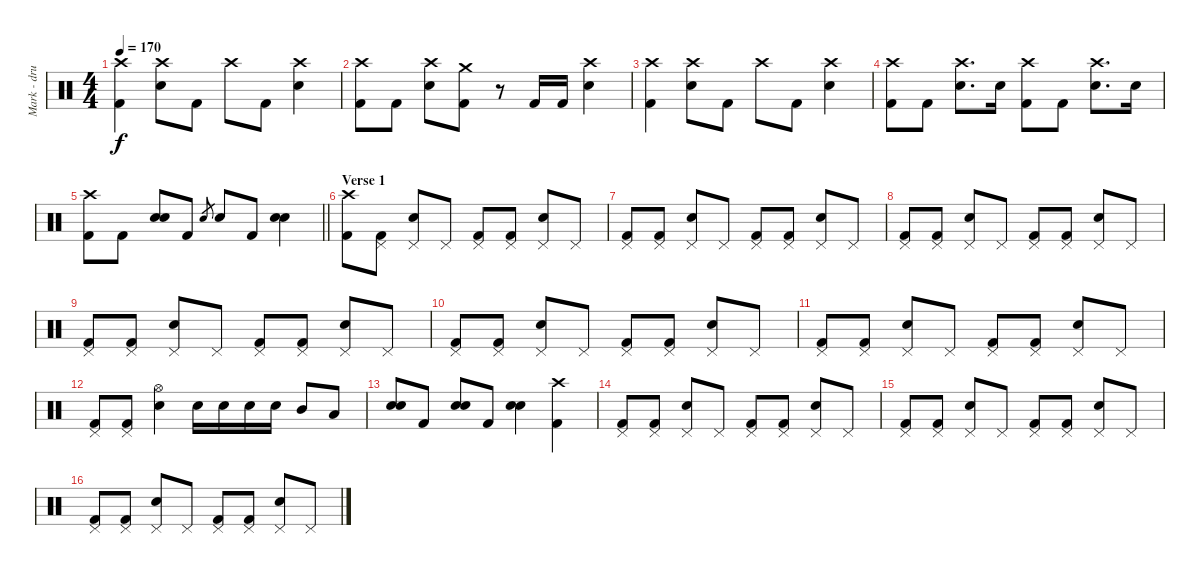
\track ("Mark - drums" "Mark - dru") {instrument percussion}
\staff {score}
\articulation defaults
\ts (4 4)
\tempo 170
\clef neutral
\ks c
("Kick (hit) 2" "Crash high (hit)").4{dy f} ("Electric Snare (hit)" "Crash high (hit)").8 "Kick (hit) 2".8 "Crash high (hit)".8 "Kick (hit) 2".8 ("Electric Snare (hit)" "Crash high (hit)").4 |
("Kick (hit) 2" "Crash high (hit)").8 "Kick (hit) 2".8 ("Electric Snare (hit)" "Crash high (hit)").8 ("Kick (hit) 2" "Crash medium (hit)").8 r.8 "Kick (hit) 2".16 "Kick (hit) 2".16 ("Electric Snare (hit)" "Crash high (hit)").4 |
("Kick (hit) 2" "Crash high (hit)").4 ("Electric Snare (hit)" "Crash high (hit)").8 "Kick (hit) 2".8 "Crash high (hit)".8 "Kick (hit) 2".8 ("Electric Snare (hit)" "Crash high (hit)").4 |
("Kick (hit) 2" "Crash high (hit)").8 "Kick (hit) 2".8 ("Electric Snare (hit)" "Crash high (hit)").8{d} "Electric Snare (hit)".16 ("Kick (hit) 2" "Crash high (hit)").8 "Kick (hit) 2".8 ("Electric Snare (hit)" "Crash high (hit)").8{d} "Electric Snare (hit)".16 |
\barLineRight lightlight
("Kick (hit) 2" "Crash high (hit)").8 "Kick (hit) 2".8 ("Electric Snare (hit)" "Electric Snare (hit)").8 "Kick (hit) 2".8 "Electric Snare (hit)".8{gr} "Electric Snare (hit)".8 "Kick (hit) 2".8 ("Electric Snare (hit)" "Electric Snare (hit)").4 |
\section ("" "Verse 1")
("Kick (hit) 2" "Crash high (hit)").8 ("Kick (hit) 2" "Pedal Hi-Hat (hit)").8 ("Electric Snare (hit)" "Pedal Hi-Hat (hit)").8 "Pedal Hi-Hat (hit)".8 ("Kick (hit) 2" "Pedal Hi-Hat (hit)").8 ("Kick (hit) 2" "Pedal Hi-Hat (hit)").8 ("Electric Snare (hit)" "Pedal Hi-Hat (hit)").8 "Pedal Hi-Hat (hit)".8 |
("Kick (hit) 2" "Pedal Hi-Hat (hit)").8 ("Kick (hit) 2" "Pedal Hi-Hat (hit)").8 ("Electric Snare (hit)" "Pedal Hi-Hat (hit)").8 "Pedal Hi-Hat (hit)".8 ("Kick (hit) 2" "Pedal Hi-Hat (hit)").8 ("Kick (hit) 2" "Pedal Hi-Hat (hit)").8 ("Electric Snare (hit)" "Pedal Hi-Hat (hit)").8 "Pedal Hi-Hat (hit)".8 |
("Kick (hit) 2" "Pedal Hi-Hat (hit)").8 ("Kick (hit) 2" "Pedal Hi-Hat (hit)").8 ("Electric Snare (hit)" "Pedal Hi-Hat (hit)").8 "Pedal Hi-Hat (hit)".8 ("Kick (hit) 2" "Pedal Hi-Hat (hit)").8 ("Kick (hit) 2" "Pedal Hi-Hat (hit)").8 ("Electric Snare (hit)" "Pedal Hi-Hat (hit)").8 "Pedal Hi-Hat (hit)".8 |
("Kick (hit) 2" "Pedal Hi-Hat (hit)").8 ("Kick (hit) 2" "Pedal Hi-Hat (hit)").8 ("Electric Snare (hit)" "Pedal Hi-Hat (hit)").8 "Pedal Hi-Hat (hit)".8 ("Kick (hit) 2" "Pedal Hi-Hat (hit)").8 ("Kick (hit) 2" "Pedal Hi-Hat (hit)").8 ("Electric Snare (hit)" "Pedal Hi-Hat (hit)").8 "Pedal Hi-Hat (hit)".8 |
("Kick (hit) 2" "Pedal Hi-Hat (hit)").8 ("Kick (hit) 2" "Pedal Hi-Hat (hit)").8 ("Electric Snare (hit)" "Pedal Hi-Hat (hit)").8 "Pedal Hi-Hat (hit)".8 ("Kick (hit) 2" "Pedal Hi-Hat (hit)").8 ("Kick (hit) 2" "Pedal Hi-Hat (hit)").8 ("Electric Snare (hit)" "Pedal Hi-Hat (hit)").8 "Pedal Hi-Hat (hit)".8 |
("Kick (hit) 2" "Pedal Hi-Hat (hit)").8 ("Kick (hit) 2" "Pedal Hi-Hat (hit)").8 ("Electric Snare (hit)" "Pedal Hi-Hat (hit)").8 "Pedal Hi-Hat (hit)".8 ("Kick (hit) 2" "Pedal Hi-Hat (hit)").8 ("Kick (hit) 2" "Pedal Hi-Hat (hit)").8 ("Electric Snare (hit)" "Pedal Hi-Hat (hit)").8 "Pedal Hi-Hat (hit)".8 |
("Kick (hit) 2" "Pedal Hi-Hat (hit)").8 ("Kick (hit) 2" "Pedal Hi-Hat (hit)").8 ("Electric Snare (hit)" "Hi-Hat (open)").4 "Electric Snare (hit)".16 "Electric Snare (hit)".16 "Electric Snare (hit)".16 "Electric Snare (hit)".16 "Mid Tom (hit)".8 "Low Tom (hit)".8 |
("Electric Snare (hit)" "Electric Snare (hit)").8 "Kick (hit) 2".8 ("Electric Snare (hit)" "Electric Snare (hit)").8 "Kick (hit) 2".8 ("Electric Snare (hit)" "Electric Snare (hit)").4 ("Kick (hit) 2" "Crash high (hit)").4 |
("Kick (hit) 2" "Pedal Hi-Hat (hit)").8 ("Kick (hit) 2" "Pedal Hi-Hat (hit)").8 ("Electric Snare (hit)" "Pedal Hi-Hat (hit)").8 "Pedal Hi-Hat (hit)".8 ("Kick (hit) 2" "Pedal Hi-Hat (hit)").8 ("Kick (hit) 2" "Pedal Hi-Hat (hit)").8 ("Electric Snare (hit)" "Pedal Hi-Hat (hit)").8 "Pedal Hi-Hat (hit)".8 |
("Kick (hit) 2" "Pedal Hi-Hat (hit)").8 ("Kick (hit) 2" "Pedal Hi-Hat (hit)").8 ("Electric Snare (hit)" "Pedal Hi-Hat (hit)").8 "Pedal Hi-Hat (hit)".8 ("Kick (hit) 2" "Pedal Hi-Hat (hit)").8 ("Kick (hit) 2" "Pedal Hi-Hat (hit)").8 ("Electric Snare (hit)" "Pedal Hi-Hat (hit)").8 "Pedal Hi-Hat (hit)".8 |
("Kick (hit) 2" "Pedal Hi-Hat (hit)").8 ("Kick (hit) 2" "Pedal Hi-Hat (hit)").8 ("Electric Snare (hit)" "Pedal Hi-Hat (hit)").8 "Pedal Hi-Hat (hit)".8 ("Kick (hit) 2" "Pedal Hi-Hat (hit)").8 ("Kick (hit) 2" "Pedal Hi-Hat (hit)").8 ("Electric Snare (hit)" "Pedal Hi-Hat (hit)").8 "Pedal Hi-Hat (hit)".8
